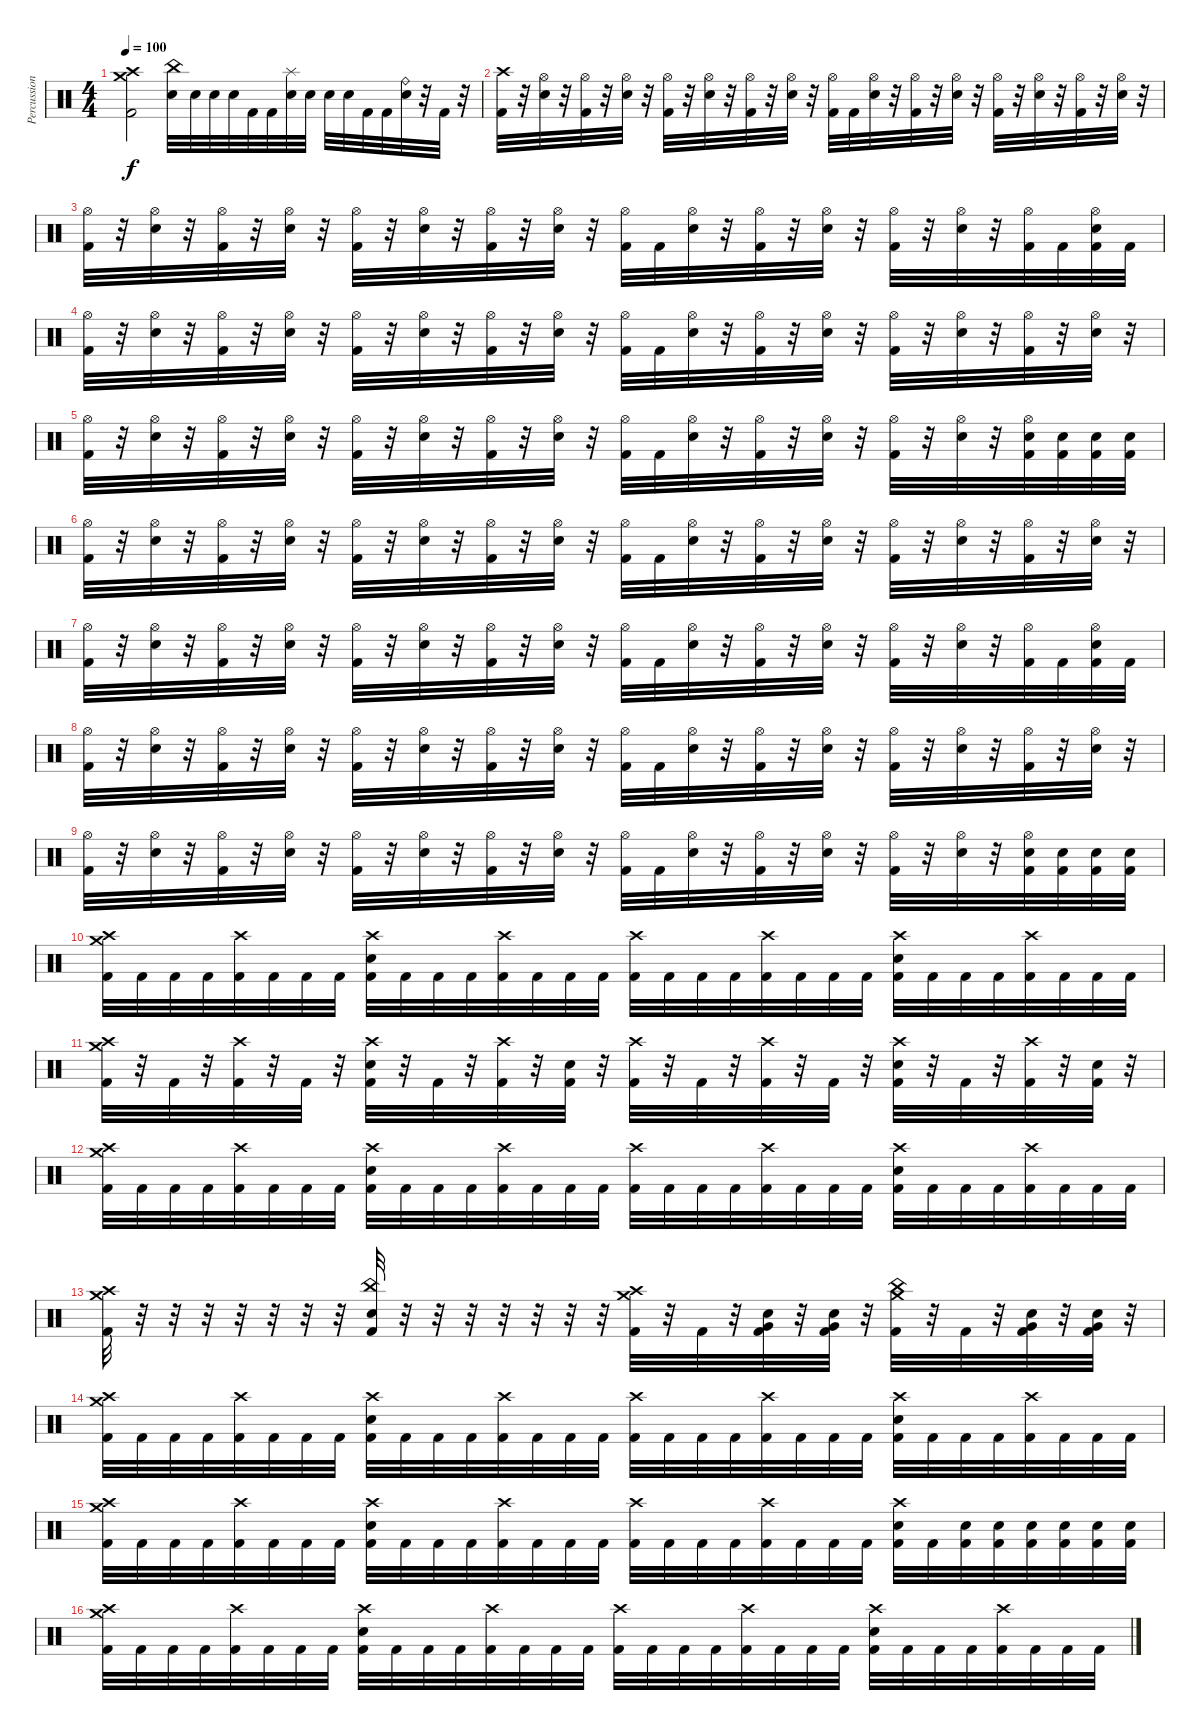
\track ("Percussion" "Percussion") {instrument percussion}
\staff {score}
\articulation defaults
\ts (4 4)
\tempo 100
\clef neutral
\ks c
("Crash high (hit)" "Crash medium (hit)" "Kick (hit) 2").2{dy f} ("China (hit)" "Electric Snare (hit)").32 "Electric Snare (hit)".32 "Electric Snare (hit)".32 "Electric Snare (hit)".32 "Kick (hit) 2".32 "Kick (hit) 2".32 ("Splash (hit)" "Electric Snare (hit)").32 "Electric Snare (hit)".32 "Electric Snare (hit)".32 "Electric Snare (hit)".32 "Kick (hit) 2".32 "Kick (hit) 2".32 ("Ride (bell)" "Electric Snare (hit)").32 r.32 "Kick (hit) 2".32 r.32 |
("Crash high (hit)" "Kick (hit) 2").32 r.32 ("Hi-Hat (open)" "Electric Snare (hit)").32 r.32 ("Hi-Hat (open)" "Kick (hit) 2").32 r.32 ("Hi-Hat (open)" "Electric Snare (hit)").32 r.32 ("Hi-Hat (open)" "Kick (hit) 2").32 r.32 ("Hi-Hat (open)" "Electric Snare (hit)").32 r.32 ("Hi-Hat (open)" "Kick (hit) 2").32 r.32 ("Hi-Hat (open)" "Electric Snare (hit)").32 r.32 ("Hi-Hat (open)" "Kick (hit) 2").32 "Kick (hit) 2".32 ("Hi-Hat (open)" "Electric Snare (hit)").32 r.32 ("Hi-Hat (open)" "Kick (hit) 2").32 r.32 ("Hi-Hat (open)" "Electric Snare (hit)").32 r.32 ("Hi-Hat (open)" "Kick (hit) 2").32 r.32 ("Hi-Hat (open)" "Electric Snare (hit)").32 r.32 ("Hi-Hat (open)" "Kick (hit) 2").32 r.32 ("Hi-Hat (open)" "Electric Snare (hit)").32 r.32 |
("Hi-Hat (open)" "Kick (hit) 2").32 r.32 ("Hi-Hat (open)" "Electric Snare (hit)").32 r.32 ("Hi-Hat (open)" "Kick (hit) 2").32 r.32 ("Hi-Hat (open)" "Electric Snare (hit)").32 r.32 ("Hi-Hat (open)" "Kick (hit) 2").32 r.32 ("Hi-Hat (open)" "Electric Snare (hit)").32 r.32 ("Hi-Hat (open)" "Kick (hit) 2").32 r.32 ("Hi-Hat (open)" "Electric Snare (hit)").32 r.32 ("Hi-Hat (open)" "Kick (hit) 2").32 "Kick (hit) 2".32 ("Hi-Hat (open)" "Electric Snare (hit)").32 r.32 ("Hi-Hat (open)" "Kick (hit) 2").32 r.32 ("Hi-Hat (open)" "Electric Snare (hit)").32 r.32 ("Hi-Hat (open)" "Kick (hit) 2").32 r.32 ("Hi-Hat (open)" "Electric Snare (hit)").32 r.32 ("Hi-Hat (open)" "Kick (hit) 2").32 "Kick (hit) 2".32 ("Hi-Hat (open)" "Electric Snare (hit)" "Kick (hit) 2").32 "Kick (hit) 2".32 |
("Hi-Hat (open)" "Kick (hit) 2").32 r.32 ("Hi-Hat (open)" "Electric Snare (hit)").32 r.32 ("Hi-Hat (open)" "Kick (hit) 2").32 r.32 ("Hi-Hat (open)" "Electric Snare (hit)").32 r.32 ("Hi-Hat (open)" "Kick (hit) 2").32 r.32 ("Hi-Hat (open)" "Electric Snare (hit)").32 r.32 ("Hi-Hat (open)" "Kick (hit) 2").32 r.32 ("Hi-Hat (open)" "Electric Snare (hit)").32 r.32 ("Hi-Hat (open)" "Kick (hit) 2").32 "Kick (hit) 2".32 ("Hi-Hat (open)" "Electric Snare (hit)").32 r.32 ("Hi-Hat (open)" "Kick (hit) 2").32 r.32 ("Hi-Hat (open)" "Electric Snare (hit)").32 r.32 ("Hi-Hat (open)" "Kick (hit) 2").32 r.32 ("Hi-Hat (open)" "Electric Snare (hit)").32 r.32 ("Hi-Hat (open)" "Kick (hit) 2").32 r.32 ("Hi-Hat (open)" "Electric Snare (hit)").32 r.32 |
("Hi-Hat (open)" "Kick (hit) 2").32 r.32 ("Hi-Hat (open)" "Electric Snare (hit)").32 r.32 ("Hi-Hat (open)" "Kick (hit) 2").32 r.32 ("Hi-Hat (open)" "Electric Snare (hit)").32 r.32 ("Hi-Hat (open)" "Kick (hit) 2").32 r.32 ("Hi-Hat (open)" "Electric Snare (hit)").32 r.32 ("Hi-Hat (open)" "Kick (hit) 2").32 r.32 ("Hi-Hat (open)" "Electric Snare (hit)").32 r.32 ("Hi-Hat (open)" "Kick (hit) 2").32 "Kick (hit) 2".32 ("Hi-Hat (open)" "Electric Snare (hit)").32 r.32 ("Hi-Hat (open)" "Kick (hit) 2").32 r.32 ("Hi-Hat (open)" "Electric Snare (hit)").32 r.32 ("Hi-Hat (open)" "Kick (hit) 2").32 r.32 ("Hi-Hat (open)" "Electric Snare (hit)").32 r.32 ("Hi-Hat (open)" "Electric Snare (hit)" "Kick (hit) 2").32 ("Electric Snare (hit)" "Kick (hit) 2").32 ("Electric Snare (hit)" "Kick (hit) 2").32 ("Electric Snare (hit)" "Kick (hit) 2").32 |
("Hi-Hat (open)" "Kick (hit) 2").32 r.32 ("Hi-Hat (open)" "Electric Snare (hit)").32 r.32 ("Hi-Hat (open)" "Kick (hit) 2").32 r.32 ("Hi-Hat (open)" "Electric Snare (hit)").32 r.32 ("Hi-Hat (open)" "Kick (hit) 2").32 r.32 ("Hi-Hat (open)" "Electric Snare (hit)").32 r.32 ("Hi-Hat (open)" "Kick (hit) 2").32 r.32 ("Hi-Hat (open)" "Electric Snare (hit)").32 r.32 ("Hi-Hat (open)" "Kick (hit) 2").32 "Kick (hit) 2".32 ("Hi-Hat (open)" "Electric Snare (hit)").32 r.32 ("Hi-Hat (open)" "Kick (hit) 2").32 r.32 ("Hi-Hat (open)" "Electric Snare (hit)").32 r.32 ("Hi-Hat (open)" "Kick (hit) 2").32 r.32 ("Hi-Hat (open)" "Electric Snare (hit)").32 r.32 ("Hi-Hat (open)" "Kick (hit) 2").32 r.32 ("Hi-Hat (open)" "Electric Snare (hit)").32 r.32 |
("Hi-Hat (open)" "Kick (hit) 2").32 r.32 ("Hi-Hat (open)" "Electric Snare (hit)").32 r.32 ("Hi-Hat (open)" "Kick (hit) 2").32 r.32 ("Hi-Hat (open)" "Electric Snare (hit)").32 r.32 ("Hi-Hat (open)" "Kick (hit) 2").32 r.32 ("Hi-Hat (open)" "Electric Snare (hit)").32 r.32 ("Hi-Hat (open)" "Kick (hit) 2").32 r.32 ("Hi-Hat (open)" "Electric Snare (hit)").32 r.32 ("Hi-Hat (open)" "Kick (hit) 2").32 "Kick (hit) 2".32 ("Hi-Hat (open)" "Electric Snare (hit)").32 r.32 ("Hi-Hat (open)" "Kick (hit) 2").32 r.32 ("Hi-Hat (open)" "Electric Snare (hit)").32 r.32 ("Hi-Hat (open)" "Kick (hit) 2").32 r.32 ("Hi-Hat (open)" "Electric Snare (hit)").32 r.32 ("Hi-Hat (open)" "Kick (hit) 2").32 "Kick (hit) 2".32 ("Hi-Hat (open)" "Electric Snare (hit)" "Kick (hit) 2").32 "Kick (hit) 2".32 |
("Hi-Hat (open)" "Kick (hit) 2").32 r.32 ("Hi-Hat (open)" "Electric Snare (hit)").32 r.32 ("Hi-Hat (open)" "Kick (hit) 2").32 r.32 ("Hi-Hat (open)" "Electric Snare (hit)").32 r.32 ("Hi-Hat (open)" "Kick (hit) 2").32 r.32 ("Hi-Hat (open)" "Electric Snare (hit)").32 r.32 ("Hi-Hat (open)" "Kick (hit) 2").32 r.32 ("Hi-Hat (open)" "Electric Snare (hit)").32 r.32 ("Hi-Hat (open)" "Kick (hit) 2").32 "Kick (hit) 2".32 ("Hi-Hat (open)" "Electric Snare (hit)").32 r.32 ("Hi-Hat (open)" "Kick (hit) 2").32 r.32 ("Hi-Hat (open)" "Electric Snare (hit)").32 r.32 ("Hi-Hat (open)" "Kick (hit) 2").32 r.32 ("Hi-Hat (open)" "Electric Snare (hit)").32 r.32 ("Hi-Hat (open)" "Kick (hit) 2").32 r.32 ("Hi-Hat (open)" "Electric Snare (hit)").32 r.32 |
("Hi-Hat (open)" "Kick (hit) 2").32 r.32 ("Hi-Hat (open)" "Electric Snare (hit)").32 r.32 ("Hi-Hat (open)" "Kick (hit) 2").32 r.32 ("Hi-Hat (open)" "Electric Snare (hit)").32 r.32 ("Hi-Hat (open)" "Kick (hit) 2").32 r.32 ("Hi-Hat (open)" "Electric Snare (hit)").32 r.32 ("Hi-Hat (open)" "Kick (hit) 2").32 r.32 ("Hi-Hat (open)" "Electric Snare (hit)").32 r.32 ("Hi-Hat (open)" "Kick (hit) 2").32 "Kick (hit) 2".32 ("Hi-Hat (open)" "Electric Snare (hit)").32 r.32 ("Hi-Hat (open)" "Kick (hit) 2").32 r.32 ("Hi-Hat (open)" "Electric Snare (hit)").32 r.32 ("Hi-Hat (open)" "Kick (hit) 2").32 r.32 ("Hi-Hat (open)" "Electric Snare (hit)").32 r.32 ("Hi-Hat (open)" "Electric Snare (hit)" "Kick (hit) 2").32 ("Electric Snare (hit)" "Kick (hit) 2").32 ("Electric Snare (hit)" "Kick (hit) 2").32 ("Electric Snare (hit)" "Kick (hit) 2").32 |
("Crash medium (hit)" "Crash high (hit)" "Kick (hit) 2").32 "Kick (hit) 2".32 "Kick (hit) 2".32 "Kick (hit) 2".32 ("Crash high (hit)" "Kick (hit) 2").32 "Kick (hit) 2".32 "Kick (hit) 2".32 "Kick (hit) 2".32 ("Crash high (hit)" "Electric Snare (hit)" "Kick (hit) 2").32 "Kick (hit) 2".32 "Kick (hit) 2".32 "Kick (hit) 2".32 ("Crash high (hit)" "Kick (hit) 2").32 "Kick (hit) 2".32 "Kick (hit) 2".32 "Kick (hit) 2".32 ("Crash high (hit)" "Kick (hit) 2").32 "Kick (hit) 2".32 "Kick (hit) 2".32 "Kick (hit) 2".32 ("Crash high (hit)" "Kick (hit) 2").32 "Kick (hit) 2".32 "Kick (hit) 2".32 "Kick (hit) 2".32 ("Crash high (hit)" "Electric Snare (hit)" "Kick (hit) 2").32 "Kick (hit) 2".32 "Kick (hit) 2".32 "Kick (hit) 2".32 ("Crash high (hit)" "Kick (hit) 2").32 "Kick (hit) 2".32 "Kick (hit) 2".32 "Kick (hit) 2".32 |
("Crash medium (hit)" "Crash high (hit)" "Kick (hit) 2").32 r.32 "Kick (hit) 2".32 r.32 ("Crash high (hit)" "Kick (hit) 2").32 r.32 "Kick (hit) 2".32 r.32 ("Crash high (hit)" "Electric Snare (hit)" "Kick (hit) 2").32 r.32 "Kick (hit) 2".32 r.32 ("Crash high (hit)" "Kick (hit) 2").32 r.32 ("Electric Snare (hit)" "Kick (hit) 2").32 r.32 ("Crash high (hit)" "Kick (hit) 2").32 r.32 "Kick (hit) 2".32 r.32 ("Crash high (hit)" "Kick (hit) 2").32 r.32 "Kick (hit) 2".32 r.32 ("Crash high (hit)" "Electric Snare (hit)" "Kick (hit) 2").32 r.32 "Kick (hit) 2".32 r.32 ("Crash high (hit)" "Kick (hit) 2").32 r.32 ("Electric Snare (hit)" "Kick (hit) 2").32 r.32 |
("Crash medium (hit)" "Crash high (hit)" "Kick (hit) 2").32 "Kick (hit) 2".32 "Kick (hit) 2".32 "Kick (hit) 2".32 ("Crash high (hit)" "Kick (hit) 2").32 "Kick (hit) 2".32 "Kick (hit) 2".32 "Kick (hit) 2".32 ("Crash high (hit)" "Electric Snare (hit)" "Kick (hit) 2").32 "Kick (hit) 2".32 "Kick (hit) 2".32 "Kick (hit) 2".32 ("Crash high (hit)" "Kick (hit) 2").32 "Kick (hit) 2".32 "Kick (hit) 2".32 "Kick (hit) 2".32 ("Crash high (hit)" "Kick (hit) 2").32 "Kick (hit) 2".32 "Kick (hit) 2".32 "Kick (hit) 2".32 ("Crash high (hit)" "Kick (hit) 2").32 "Kick (hit) 2".32 "Kick (hit) 2".32 "Kick (hit) 2".32 ("Crash high (hit)" "Electric Snare (hit)" "Kick (hit) 2").32 "Kick (hit) 2".32 "Kick (hit) 2".32 "Kick (hit) 2".32 ("Crash high (hit)" "Kick (hit) 2").32 "Kick (hit) 2".32 "Kick (hit) 2".32 "Kick (hit) 2".32 |
("Crash medium (hit)" "Crash high (hit)" "Kick (hit) 2").32 r.32 r.32 r.32 r.32 r.32 r.32 r.32 ("China (hit)" "Electric Snare (hit)" "Kick (hit) 2").32 r.32 r.32 r.32 r.32 r.32 r.32 r.32 ("Crash high (hit)" "Crash medium (hit)" "Kick (hit) 2").32 r.32 "Kick (hit) 2".32 r.32 ("Very Low Tom (hit)" "Electric Snare (hit)" "Kick (hit) 2").32 r.32 ("Very Low Tom (hit)" "Electric Snare (hit)" "Kick (hit) 2").32 r.32 ("China (hit)" "Crash medium (hit)" "Kick (hit) 2").32 r.32 "Kick (hit) 2".32 r.32 ("Very Low Tom (hit)" "Electric Snare (hit)" "Kick (hit) 2").32 r.32 ("Very Low Tom (hit)" "Electric Snare (hit)" "Kick (hit) 2").32 r.32 |
("Crash medium (hit)" "Crash high (hit)" "Kick (hit) 2").32 "Kick (hit) 2".32 "Kick (hit) 2".32 "Kick (hit) 2".32 ("Crash high (hit)" "Kick (hit) 2").32 "Kick (hit) 2".32 "Kick (hit) 2".32 "Kick (hit) 2".32 ("Crash high (hit)" "Electric Snare (hit)" "Kick (hit) 2").32 "Kick (hit) 2".32 "Kick (hit) 2".32 "Kick (hit) 2".32 ("Crash high (hit)" "Kick (hit) 2").32 "Kick (hit) 2".32 "Kick (hit) 2".32 "Kick (hit) 2".32 ("Crash high (hit)" "Kick (hit) 2").32 "Kick (hit) 2".32 "Kick (hit) 2".32 "Kick (hit) 2".32 ("Crash high (hit)" "Kick (hit) 2").32 "Kick (hit) 2".32 "Kick (hit) 2".32 "Kick (hit) 2".32 ("Crash high (hit)" "Electric Snare (hit)" "Kick (hit) 2").32 "Kick (hit) 2".32 "Kick (hit) 2".32 "Kick (hit) 2".32 ("Crash high (hit)" "Kick (hit) 2").32 "Kick (hit) 2".32 "Kick (hit) 2".32 "Kick (hit) 2".32 |
("Crash medium (hit)" "Crash high (hit)" "Kick (hit) 2").32 "Kick (hit) 2".32 "Kick (hit) 2".32 "Kick (hit) 2".32 ("Crash high (hit)" "Kick (hit) 2").32 "Kick (hit) 2".32 "Kick (hit) 2".32 "Kick (hit) 2".32 ("Crash high (hit)" "Electric Snare (hit)" "Kick (hit) 2").32 "Kick (hit) 2".32 "Kick (hit) 2".32 "Kick (hit) 2".32 ("Crash high (hit)" "Kick (hit) 2").32 "Kick (hit) 2".32 "Kick (hit) 2".32 "Kick (hit) 2".32 ("Crash high (hit)" "Kick (hit) 2").32 "Kick (hit) 2".32 "Kick (hit) 2".32 "Kick (hit) 2".32 ("Crash high (hit)" "Kick (hit) 2").32 "Kick (hit) 2".32 "Kick (hit) 2".32 "Kick (hit) 2".32 ("Crash high (hit)" "Electric Snare (hit)" "Kick (hit) 2").32 "Kick (hit) 2".32 ("Electric Snare (hit)" "Kick (hit) 2").32 ("Electric Snare (hit)" "Kick (hit) 2").32 ("Electric Snare (hit)" "Kick (hit) 2").32 ("Electric Snare (hit)" "Kick (hit) 2").32 ("Electric Snare (hit)" "Kick (hit) 2").32 ("Electric Snare (hit)" "Kick (hit) 2").32 |
("Crash medium (hit)" "Crash high (hit)" "Kick (hit) 2").32 "Kick (hit) 2".32 "Kick (hit) 2".32 "Kick (hit) 2".32 ("Crash high (hit)" "Kick (hit) 2").32 "Kick (hit) 2".32 "Kick (hit) 2".32 "Kick (hit) 2".32 ("Crash high (hit)" "Electric Snare (hit)" "Kick (hit) 2").32 "Kick (hit) 2".32 "Kick (hit) 2".32 "Kick (hit) 2".32 ("Crash high (hit)" "Kick (hit) 2").32 "Kick (hit) 2".32 "Kick (hit) 2".32 "Kick (hit) 2".32 ("Crash high (hit)" "Kick (hit) 2").32 "Kick (hit) 2".32 "Kick (hit) 2".32 "Kick (hit) 2".32 ("Crash high (hit)" "Kick (hit) 2").32 "Kick (hit) 2".32 "Kick (hit) 2".32 "Kick (hit) 2".32 ("Crash high (hit)" "Electric Snare (hit)" "Kick (hit) 2").32 "Kick (hit) 2".32 "Kick (hit) 2".32 "Kick (hit) 2".32 ("Crash high (hit)" "Kick (hit) 2").32 "Kick (hit) 2".32 "Kick (hit) 2".32 "Kick (hit) 2".32
